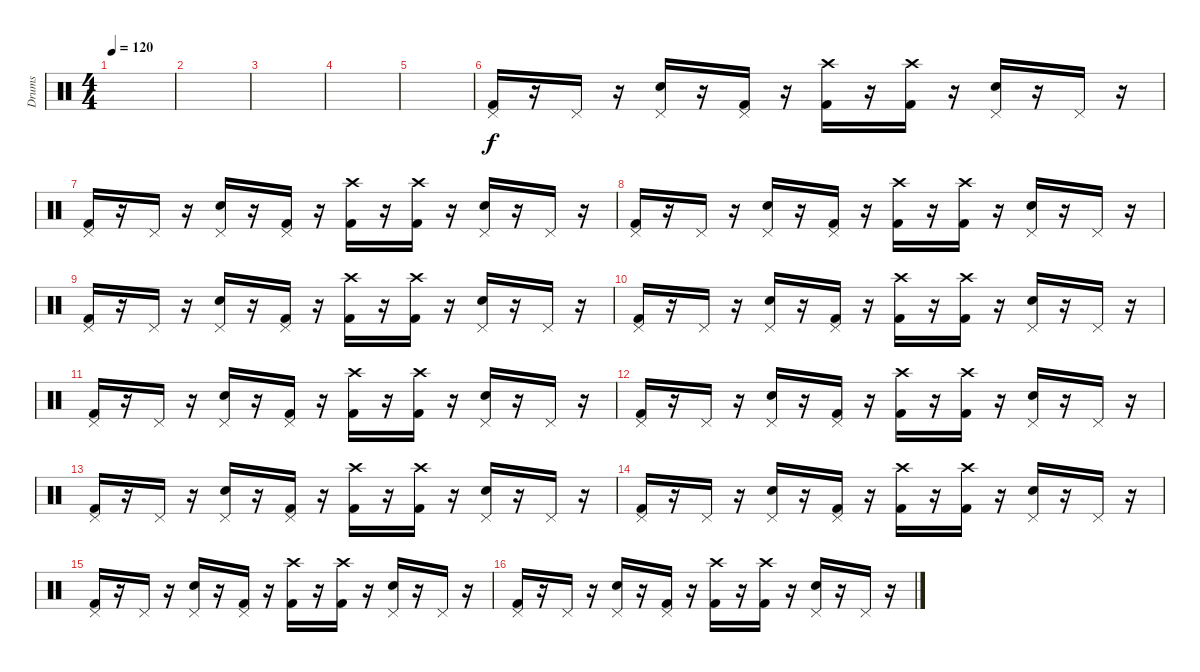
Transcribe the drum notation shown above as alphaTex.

\track ("Drums" "Drums") {instrument percussion}
\staff {score}
\articulation defaults
\ts (4 4)
\tempo 120
\clef neutral
\ks c
|
|
|
|
|
("Pedal Hi-Hat (hit)" "Kick (hit) 2").16 r.16 "Pedal Hi-Hat (hit)".16 r.16 ("Pedal Hi-Hat (hit)" "Snare (hit) 2").16 r.16 ("Pedal Hi-Hat (hit)" "Kick (hit) 2").16 r.16 ("Crash high (hit)" "Kick (hit) 2").16 r.16 ("Crash high (hit)" "Kick (hit) 2").16 r.16 ("Pedal Hi-Hat (hit)" "Snare (hit) 2").16 r.16 "Pedal Hi-Hat (hit)".16 r.16 |
("Pedal Hi-Hat (hit)" "Kick (hit) 2").16 r.16 "Pedal Hi-Hat (hit)".16 r.16 ("Pedal Hi-Hat (hit)" "Snare (hit) 2").16 r.16 ("Pedal Hi-Hat (hit)" "Kick (hit) 2").16 r.16 ("Crash high (hit)" "Kick (hit) 2").16 r.16 ("Crash high (hit)" "Kick (hit) 2").16 r.16 ("Pedal Hi-Hat (hit)" "Snare (hit) 2").16 r.16 "Pedal Hi-Hat (hit)".16 r.16 |
("Pedal Hi-Hat (hit)" "Kick (hit) 2").16 r.16 "Pedal Hi-Hat (hit)".16 r.16 ("Pedal Hi-Hat (hit)" "Snare (hit) 2").16 r.16 ("Pedal Hi-Hat (hit)" "Kick (hit) 2").16 r.16 ("Crash high (hit)" "Kick (hit) 2").16 r.16 ("Crash high (hit)" "Kick (hit) 2").16 r.16 ("Pedal Hi-Hat (hit)" "Snare (hit) 2").16 r.16 "Pedal Hi-Hat (hit)".16 r.16 |
("Pedal Hi-Hat (hit)" "Kick (hit) 2").16 r.16 "Pedal Hi-Hat (hit)".16 r.16 ("Pedal Hi-Hat (hit)" "Snare (hit) 2").16 r.16 ("Pedal Hi-Hat (hit)" "Kick (hit) 2").16 r.16 ("Crash high (hit)" "Kick (hit) 2").16 r.16 ("Crash high (hit)" "Kick (hit) 2").16 r.16 ("Pedal Hi-Hat (hit)" "Snare (hit) 2").16 r.16 "Pedal Hi-Hat (hit)".16 r.16 |
("Pedal Hi-Hat (hit)" "Kick (hit) 2").16 r.16 "Pedal Hi-Hat (hit)".16 r.16 ("Pedal Hi-Hat (hit)" "Snare (hit) 2").16 r.16 ("Pedal Hi-Hat (hit)" "Kick (hit) 2").16 r.16 ("Crash high (hit)" "Kick (hit) 2").16 r.16 ("Crash high (hit)" "Kick (hit) 2").16 r.16 ("Pedal Hi-Hat (hit)" "Snare (hit) 2").16 r.16 "Pedal Hi-Hat (hit)".16 r.16 |
("Pedal Hi-Hat (hit)" "Kick (hit) 2").16 r.16 "Pedal Hi-Hat (hit)".16 r.16 ("Pedal Hi-Hat (hit)" "Snare (hit) 2").16 r.16 ("Pedal Hi-Hat (hit)" "Kick (hit) 2").16 r.16 ("Crash high (hit)" "Kick (hit) 2").16 r.16 ("Crash high (hit)" "Kick (hit) 2").16 r.16 ("Pedal Hi-Hat (hit)" "Snare (hit) 2").16 r.16 "Pedal Hi-Hat (hit)".16 r.16 |
("Pedal Hi-Hat (hit)" "Kick (hit) 2").16 r.16 "Pedal Hi-Hat (hit)".16 r.16 ("Pedal Hi-Hat (hit)" "Snare (hit) 2").16 r.16 ("Pedal Hi-Hat (hit)" "Kick (hit) 2").16 r.16 ("Crash high (hit)" "Kick (hit) 2").16 r.16 ("Crash high (hit)" "Kick (hit) 2").16 r.16 ("Pedal Hi-Hat (hit)" "Snare (hit) 2").16 r.16 "Pedal Hi-Hat (hit)".16 r.16 |
("Pedal Hi-Hat (hit)" "Kick (hit) 2").16 r.16 "Pedal Hi-Hat (hit)".16 r.16 ("Pedal Hi-Hat (hit)" "Snare (hit) 2").16 r.16 ("Pedal Hi-Hat (hit)" "Kick (hit) 2").16 r.16 ("Crash high (hit)" "Kick (hit) 2").16 r.16 ("Crash high (hit)" "Kick (hit) 2").16 r.16 ("Pedal Hi-Hat (hit)" "Snare (hit) 2").16 r.16 "Pedal Hi-Hat (hit)".16 r.16 |
("Pedal Hi-Hat (hit)" "Kick (hit) 2").16 r.16 "Pedal Hi-Hat (hit)".16 r.16 ("Pedal Hi-Hat (hit)" "Snare (hit) 2").16 r.16 ("Pedal Hi-Hat (hit)" "Kick (hit) 2").16 r.16 ("Crash high (hit)" "Kick (hit) 2").16 r.16 ("Crash high (hit)" "Kick (hit) 2").16 r.16 ("Pedal Hi-Hat (hit)" "Snare (hit) 2").16 r.16 "Pedal Hi-Hat (hit)".16 r.16 |
("Pedal Hi-Hat (hit)" "Kick (hit) 2").16 r.16 "Pedal Hi-Hat (hit)".16 r.16 ("Pedal Hi-Hat (hit)" "Snare (hit) 2").16 r.16 ("Pedal Hi-Hat (hit)" "Kick (hit) 2").16 r.16 ("Crash high (hit)" "Kick (hit) 2").16 r.16 ("Crash high (hit)" "Kick (hit) 2").16 r.16 ("Pedal Hi-Hat (hit)" "Snare (hit) 2").16 r.16 "Pedal Hi-Hat (hit)".16 r.16 |
("Pedal Hi-Hat (hit)" "Kick (hit) 2").16 r.16 "Pedal Hi-Hat (hit)".16 r.16 ("Pedal Hi-Hat (hit)" "Snare (hit) 2").16 r.16 ("Pedal Hi-Hat (hit)" "Kick (hit) 2").16 r.16 ("Crash high (hit)" "Kick (hit) 2").16 r.16 ("Crash high (hit)" "Kick (hit) 2").16 r.16 ("Pedal Hi-Hat (hit)" "Snare (hit) 2").16 r.16 "Pedal Hi-Hat (hit)".16 r.16
